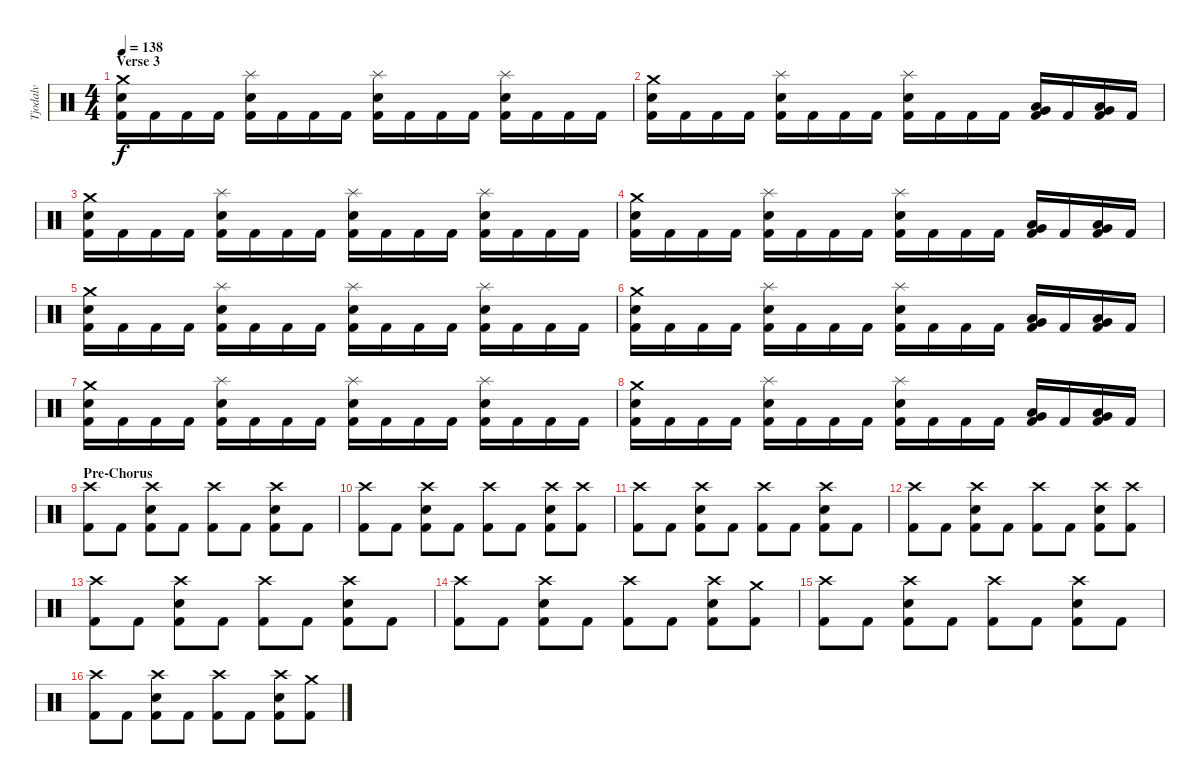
\track ("Tjodalv" "Tjodalv") {instrument percussion}
\staff {score}
\articulation defaults
\ts (4 4)
\section ("" "Verse 3")
\tempo 138
\clef neutral
\ks c
("Crash medium (hit)" "Snare (hit) 2" "Kick (hit) 2").16{dy f} "Kick (hit) 2".16 "Kick (hit) 2".16 "Kick (hit) 2".16 ("Splash (hit)" "Snare (hit) 2" "Kick (hit) 2").16 "Kick (hit) 2".16 "Kick (hit) 2".16 "Kick (hit) 2".16 ("Splash (hit)" "Snare (hit) 2" "Kick (hit) 2").16 "Kick (hit) 2".16 "Kick (hit) 2".16 "Kick (hit) 2".16 ("Splash (hit)" "Snare (hit) 2" "Kick (hit) 2").16 "Kick (hit) 2".16 "Kick (hit) 2".16 "Kick (hit) 2".16 |
("Crash medium (hit)" "Snare (hit) 2" "Kick (hit) 2").16 "Kick (hit) 2".16 "Kick (hit) 2".16 "Kick (hit) 2".16 ("Splash (hit)" "Snare (hit) 2" "Kick (hit) 2").16 "Kick (hit) 2".16 "Kick (hit) 2".16 "Kick (hit) 2".16 ("Splash (hit)" "Snare (hit) 2" "Kick (hit) 2").16 "Kick (hit) 2".16 "Kick (hit) 2".16 "Kick (hit) 2".16 ("Low Tom (hit)" "Very Low Tom (hit)" "Kick (hit) 2").16 "Kick (hit) 2".16 ("Low Floor Tom (hit)" "Very Low Tom (hit)" "Kick (hit) 2").16 "Kick (hit) 2".16 |
("Crash medium (hit)" "Snare (hit) 2" "Kick (hit) 2").16 "Kick (hit) 2".16 "Kick (hit) 2".16 "Kick (hit) 2".16 ("Splash (hit)" "Snare (hit) 2" "Kick (hit) 2").16 "Kick (hit) 2".16 "Kick (hit) 2".16 "Kick (hit) 2".16 ("Splash (hit)" "Snare (hit) 2" "Kick (hit) 2").16 "Kick (hit) 2".16 "Kick (hit) 2".16 "Kick (hit) 2".16 ("Splash (hit)" "Snare (hit) 2" "Kick (hit) 2").16 "Kick (hit) 2".16 "Kick (hit) 2".16 "Kick (hit) 2".16 |
("Crash medium (hit)" "Snare (hit) 2" "Kick (hit) 2").16 "Kick (hit) 2".16 "Kick (hit) 2".16 "Kick (hit) 2".16 ("Splash (hit)" "Snare (hit) 2" "Kick (hit) 2").16 "Kick (hit) 2".16 "Kick (hit) 2".16 "Kick (hit) 2".16 ("Splash (hit)" "Snare (hit) 2" "Kick (hit) 2").16 "Kick (hit) 2".16 "Kick (hit) 2".16 "Kick (hit) 2".16 ("Low Tom (hit)" "Very Low Tom (hit)" "Kick (hit) 2").16 "Kick (hit) 2".16 ("Low Floor Tom (hit)" "Very Low Tom (hit)" "Kick (hit) 2").16 "Kick (hit) 2".16 |
("Crash medium (hit)" "Snare (hit) 2" "Kick (hit) 2").16 "Kick (hit) 2".16 "Kick (hit) 2".16 "Kick (hit) 2".16 ("Splash (hit)" "Snare (hit) 2" "Kick (hit) 2").16 "Kick (hit) 2".16 "Kick (hit) 2".16 "Kick (hit) 2".16 ("Splash (hit)" "Snare (hit) 2" "Kick (hit) 2").16 "Kick (hit) 2".16 "Kick (hit) 2".16 "Kick (hit) 2".16 ("Splash (hit)" "Snare (hit) 2" "Kick (hit) 2").16 "Kick (hit) 2".16 "Kick (hit) 2".16 "Kick (hit) 2".16 |
("Crash medium (hit)" "Snare (hit) 2" "Kick (hit) 2").16 "Kick (hit) 2".16 "Kick (hit) 2".16 "Kick (hit) 2".16 ("Splash (hit)" "Snare (hit) 2" "Kick (hit) 2").16 "Kick (hit) 2".16 "Kick (hit) 2".16 "Kick (hit) 2".16 ("Splash (hit)" "Snare (hit) 2" "Kick (hit) 2").16 "Kick (hit) 2".16 "Kick (hit) 2".16 "Kick (hit) 2".16 ("Low Tom (hit)" "Very Low Tom (hit)" "Kick (hit) 2").16 "Kick (hit) 2".16 ("Low Floor Tom (hit)" "Very Low Tom (hit)" "Kick (hit) 2").16 "Kick (hit) 2".16 |
("Crash medium (hit)" "Snare (hit) 2" "Kick (hit) 2").16 "Kick (hit) 2".16 "Kick (hit) 2".16 "Kick (hit) 2".16 ("Splash (hit)" "Snare (hit) 2" "Kick (hit) 2").16 "Kick (hit) 2".16 "Kick (hit) 2".16 "Kick (hit) 2".16 ("Splash (hit)" "Snare (hit) 2" "Kick (hit) 2").16 "Kick (hit) 2".16 "Kick (hit) 2".16 "Kick (hit) 2".16 ("Splash (hit)" "Snare (hit) 2" "Kick (hit) 2").16 "Kick (hit) 2".16 "Kick (hit) 2".16 "Kick (hit) 2".16 |
("Crash medium (hit)" "Snare (hit) 2" "Kick (hit) 2").16 "Kick (hit) 2".16 "Kick (hit) 2".16 "Kick (hit) 2".16 ("Splash (hit)" "Snare (hit) 2" "Kick (hit) 2").16 "Kick (hit) 2".16 "Kick (hit) 2".16 "Kick (hit) 2".16 ("Splash (hit)" "Snare (hit) 2" "Kick (hit) 2").16 "Kick (hit) 2".16 "Kick (hit) 2".16 "Kick (hit) 2".16 ("Low Tom (hit)" "Very Low Tom (hit)" "Kick (hit) 2").16 "Kick (hit) 2".16 ("Low Floor Tom (hit)" "Very Low Tom (hit)" "Kick (hit) 2").16 "Kick (hit) 2".16 |
\section ("" "Pre-Chorus")
("Crash high (hit)" "Kick (hit) 2").8 "Kick (hit) 2".8 ("Crash high (hit)" "Snare (hit) 2" "Kick (hit) 2").8 "Kick (hit) 2".8 ("Crash high (hit)" "Kick (hit) 2").8 "Kick (hit) 2".8 ("Crash high (hit)" "Snare (hit) 2" "Kick (hit) 2").8 "Kick (hit) 2".8 |
("Crash high (hit)" "Kick (hit) 2").8 "Kick (hit) 2".8 ("Crash high (hit)" "Snare (hit) 2" "Kick (hit) 2").8 "Kick (hit) 2".8 ("Crash high (hit)" "Kick (hit) 2").8 "Kick (hit) 2".8 ("Crash high (hit)" "Snare (hit) 2" "Kick (hit) 2").8 ("Crash high (hit)" "Kick (hit) 2").8 |
("Crash high (hit)" "Kick (hit) 2").8 "Kick (hit) 2".8 ("Crash high (hit)" "Snare (hit) 2" "Kick (hit) 2").8 "Kick (hit) 2".8 ("Crash high (hit)" "Kick (hit) 2").8 "Kick (hit) 2".8 ("Crash high (hit)" "Snare (hit) 2" "Kick (hit) 2").8 "Kick (hit) 2".8 |
("Crash high (hit)" "Kick (hit) 2").8 "Kick (hit) 2".8 ("Crash high (hit)" "Snare (hit) 2" "Kick (hit) 2").8 "Kick (hit) 2".8 ("Crash high (hit)" "Kick (hit) 2").8 "Kick (hit) 2".8 ("Crash high (hit)" "Snare (hit) 2" "Kick (hit) 2").8 ("Crash high (hit)" "Kick (hit) 2").8 |
("Crash high (hit)" "Kick (hit) 2").8 "Kick (hit) 2".8 ("Crash high (hit)" "Snare (hit) 2" "Kick (hit) 2").8 "Kick (hit) 2".8 ("Crash high (hit)" "Kick (hit) 2").8 "Kick (hit) 2".8 ("Crash high (hit)" "Snare (hit) 2" "Kick (hit) 2").8 "Kick (hit) 2".8 |
("Crash high (hit)" "Kick (hit) 2").8 "Kick (hit) 2".8 ("Crash high (hit)" "Snare (hit) 2" "Kick (hit) 2").8 "Kick (hit) 2".8 ("Crash high (hit)" "Kick (hit) 2").8 "Kick (hit) 2".8 ("Crash high (hit)" "Snare (hit) 2" "Kick (hit) 2").8 ("Crash medium (hit)" "Kick (hit) 2").8 |
("Crash high (hit)" "Kick (hit) 2").8 "Kick (hit) 2".8 ("Crash high (hit)" "Snare (hit) 2" "Kick (hit) 2").8 "Kick (hit) 2".8 ("Crash high (hit)" "Kick (hit) 2").8 "Kick (hit) 2".8 ("Crash high (hit)" "Snare (hit) 2" "Kick (hit) 2").8 "Kick (hit) 2".8 |
("Crash high (hit)" "Kick (hit) 2").8 "Kick (hit) 2".8 ("Crash high (hit)" "Snare (hit) 2" "Kick (hit) 2").8 "Kick (hit) 2".8 ("Crash high (hit)" "Kick (hit) 2").8 "Kick (hit) 2".8 ("Crash high (hit)" "Snare (hit) 2" "Kick (hit) 2").8 ("Crash medium (hit)" "Kick (hit) 2").8
